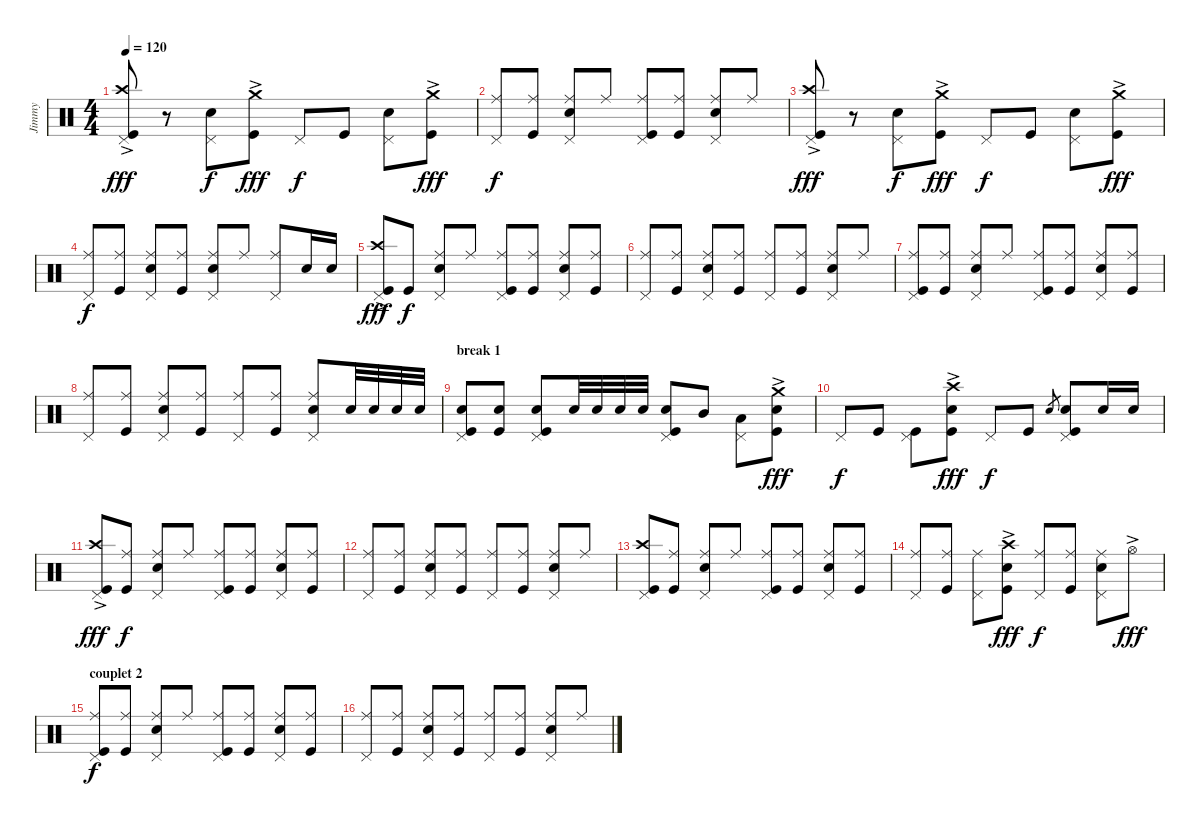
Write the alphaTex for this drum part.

\track ("Jimmy" "Jimmy") {instrument percussion}
\staff {score}
\articulation defaults
\ts (4 4)
\section ("" "")
\tempo 120
\clef neutral
\ks c
("Pedal Hi-Hat (hit)" "Crash high (hit)"{ac} "Kick (hit)").8{dy fff} r.8 ("Pedal Hi-Hat (hit)" "Snare (hit) 2").8{dy f} ("Crash medium (hit)"{ac} "Kick (hit)").8{dy fff} "Pedal Hi-Hat (hit)".8{dy f} "Kick (hit)".8 ("Pedal Hi-Hat (hit)" "Snare (hit) 2").8 ("Crash medium (hit)"{ac} "Kick (hit)").8{dy fff} |
("Pedal Hi-Hat (hit)" "Ride (middle)").8{dy f} ("Ride (middle)" "Kick (hit)").8 ("Pedal Hi-Hat (hit)" "Ride (middle)" "Snare (hit) 2").8 "Ride (middle)".8 ("Pedal Hi-Hat (hit)" "Ride (middle)" "Kick (hit)").8 ("Ride (middle)" "Kick (hit)").8 ("Pedal Hi-Hat (hit)" "Ride (middle)" "Snare (hit) 2").8 "Ride (middle)".8 |
("Pedal Hi-Hat (hit)" "Crash high (hit)"{ac} "Kick (hit)").8{dy fff} r.8 ("Pedal Hi-Hat (hit)" "Snare (hit) 2").8{dy f} ("Crash medium (hit)"{ac} "Kick (hit)").8{dy fff} "Pedal Hi-Hat (hit)".8{dy f} "Kick (hit)".8 ("Pedal Hi-Hat (hit)" "Snare (hit) 2").8 ("Crash medium (hit)"{ac} "Kick (hit)").8{dy fff} |
("Pedal Hi-Hat (hit)" "Ride (middle)").8{dy f} ("Ride (middle)" "Kick (hit)").8 ("Pedal Hi-Hat (hit)" "Ride (middle)" "Snare (hit) 2").8 ("Ride (middle)" "Kick (hit)").8 ("Pedal Hi-Hat (hit)" "Ride (middle)" "Snare (hit) 2").8 "Ride (middle)".8 ("Pedal Hi-Hat (hit)" "Ride (middle)").8 "Snare (hit) 2".16 "Snare (hit) 2".16 |
("Pedal Hi-Hat (hit)" "Crash high (hit)"{ac} "Kick (hit)").8{dy fff} "Kick (hit)".8{dy f} ("Pedal Hi-Hat (hit)" "Ride (middle)" "Snare (hit) 2").8 "Ride (middle)".8 ("Pedal Hi-Hat (hit)" "Ride (middle)" "Kick (hit)").8 ("Ride (middle)" "Kick (hit)").8 ("Pedal Hi-Hat (hit)" "Ride (middle)" "Snare (hit) 2").8 ("Ride (middle)" "Kick (hit)").8 |
("Pedal Hi-Hat (hit)" "Ride (middle)").8 ("Ride (middle)" "Kick (hit)").8 ("Pedal Hi-Hat (hit)" "Ride (middle)" "Snare (hit) 2").8 ("Ride (middle)" "Kick (hit)").8 ("Pedal Hi-Hat (hit)" "Ride (middle)").8 ("Ride (middle)" "Kick (hit)").8 ("Pedal Hi-Hat (hit)" "Ride (middle)" "Snare (hit) 2").8 "Ride (middle)".8 |
("Pedal Hi-Hat (hit)" "Ride (middle)" "Kick (hit)").8 ("Ride (middle)" "Kick (hit)").8 ("Pedal Hi-Hat (hit)" "Ride (middle)" "Snare (hit) 2").8 "Ride (middle)".8 ("Pedal Hi-Hat (hit)" "Ride (middle)" "Kick (hit)").8 ("Ride (middle)" "Kick (hit)").8 ("Pedal Hi-Hat (hit)" "Ride (middle)" "Snare (hit) 2").8 ("Ride (middle)" "Kick (hit)").8 |
("Pedal Hi-Hat (hit)" "Ride (middle)").8 ("Ride (middle)" "Kick (hit)").8 ("Pedal Hi-Hat (hit)" "Ride (middle)" "Snare (hit) 2").8 ("Ride (middle)" "Kick (hit)").8 ("Pedal Hi-Hat (hit)" "Ride (middle)").8 ("Ride (middle)" "Kick (hit)").8 ("Pedal Hi-Hat (hit)" "Ride (middle)" "Snare (hit) 2").8 "Snare (hit) 2".32 "Snare (hit) 2".32 "Snare (hit) 2".32 "Snare (hit) 2".32 |
\section ("" "break 1")
("Pedal Hi-Hat (hit)" "Kick (hit)" "Snare (hit) 2").8 ("Kick (hit)" "Snare (hit) 2").8 ("Pedal Hi-Hat (hit)" "Kick (hit)" "Snare (hit) 2").8 "Snare (hit) 2".32 "Snare (hit) 2".32 "Snare (hit) 2".32 "Snare (hit) 2".32 ("Pedal Hi-Hat (hit)" "Kick (hit)" "Snare (hit) 2").8 "Mid Tom (hit)".8 ("Pedal Hi-Hat (hit)" "Low Floor Tom (hit)").8 ("Crash medium (hit)"{ac} "Kick (hit)" "Snare (hit) 2").8{dy fff} |
"Pedal Hi-Hat (hit)".8{dy f} "Kick (hit)".8 ("Pedal Hi-Hat (hit)" "Kick (hit)").8 ("Crash high (hit)"{ac} "Kick (hit)" "Snare (hit) 2").8{dy fff} "Pedal Hi-Hat (hit)".8{dy f} "Kick (hit)".8 "Snare (hit) 2"{h}.8{gr} ("Pedal Hi-Hat (hit)" "Kick (hit)" "Snare (hit) 2").8 "Snare (hit) 2".16 "Snare (hit) 2".16 |
\section ("" "")
("Pedal Hi-Hat (hit)" "Crash high (hit)"{ac} "Kick (hit)").8{dy fff} ("Ride (middle)" "Kick (hit)").8{dy f} ("Pedal Hi-Hat (hit)" "Ride (middle)" "Snare (hit) 2").8 "Ride (middle)".8 ("Pedal Hi-Hat (hit)" "Ride (middle)" "Kick (hit)").8 ("Ride (middle)" "Kick (hit)").8 ("Pedal Hi-Hat (hit)" "Ride (middle)" "Snare (hit) 2").8 ("Ride (middle)" "Kick (hit)").8 |
("Pedal Hi-Hat (hit)" "Ride (middle)").8 ("Ride (middle)" "Kick (hit)").8 ("Pedal Hi-Hat (hit)" "Ride (middle)" "Snare (hit) 2").8 ("Ride (middle)" "Kick (hit)").8 ("Pedal Hi-Hat (hit)" "Ride (middle)").8 ("Ride (middle)" "Kick (hit)").8 ("Pedal Hi-Hat (hit)" "Ride (middle)" "Snare (hit) 2").8 "Ride (middle)".8 |
("Pedal Hi-Hat (hit)" "Crash high (hit)" "Kick (hit)").8 ("Ride (middle)" "Kick (hit)").8 ("Pedal Hi-Hat (hit)" "Ride (middle)" "Snare (hit) 2").8 "Ride (middle)".8 ("Pedal Hi-Hat (hit)" "Ride (middle)" "Kick (hit)").8 ("Ride (middle)" "Kick (hit)").8 ("Pedal Hi-Hat (hit)" "Ride (middle)" "Snare (hit) 2").8 ("Ride (middle)" "Kick (hit)").8 |
("Pedal Hi-Hat (hit)" "Ride (middle)").8 ("Ride (middle)" "Kick (hit)").8 ("Pedal Hi-Hat (hit)" "Ride (middle)").8 ("Crash high (hit)"{ac} "Kick (hit)" "Snare (hit) 2"{ac}).8{dy fff} ("Pedal Hi-Hat (hit)" "Ride (middle)").8{dy f} ("Ride (middle)" "Kick (hit)").8 ("Pedal Hi-Hat (hit)" "Ride (middle)" "Snare (hit) 2").8 "Hi-Hat (open)"{ac}.8{dy fff} |
\section ("" "couplet 2")
("Pedal Hi-Hat (hit)" "Ride (middle)" "Kick (hit)").8{dy f} ("Ride (middle)" "Kick (hit)").8 ("Pedal Hi-Hat (hit)" "Ride (middle)" "Snare (hit) 2").8 "Ride (middle)".8 ("Pedal Hi-Hat (hit)" "Ride (middle)" "Kick (hit)").8 ("Ride (middle)" "Kick (hit)").8 ("Pedal Hi-Hat (hit)" "Ride (middle)" "Snare (hit) 2").8 ("Ride (middle)" "Kick (hit)").8 |
("Pedal Hi-Hat (hit)" "Ride (middle)").8 ("Ride (middle)" "Kick (hit)").8 ("Pedal Hi-Hat (hit)" "Ride (middle)" "Snare (hit) 2").8 ("Ride (middle)" "Kick (hit)").8 ("Pedal Hi-Hat (hit)" "Ride (middle)").8 ("Ride (middle)" "Kick (hit)").8 ("Pedal Hi-Hat (hit)" "Ride (middle)" "Snare (hit) 2").8 "Ride (middle)".8
